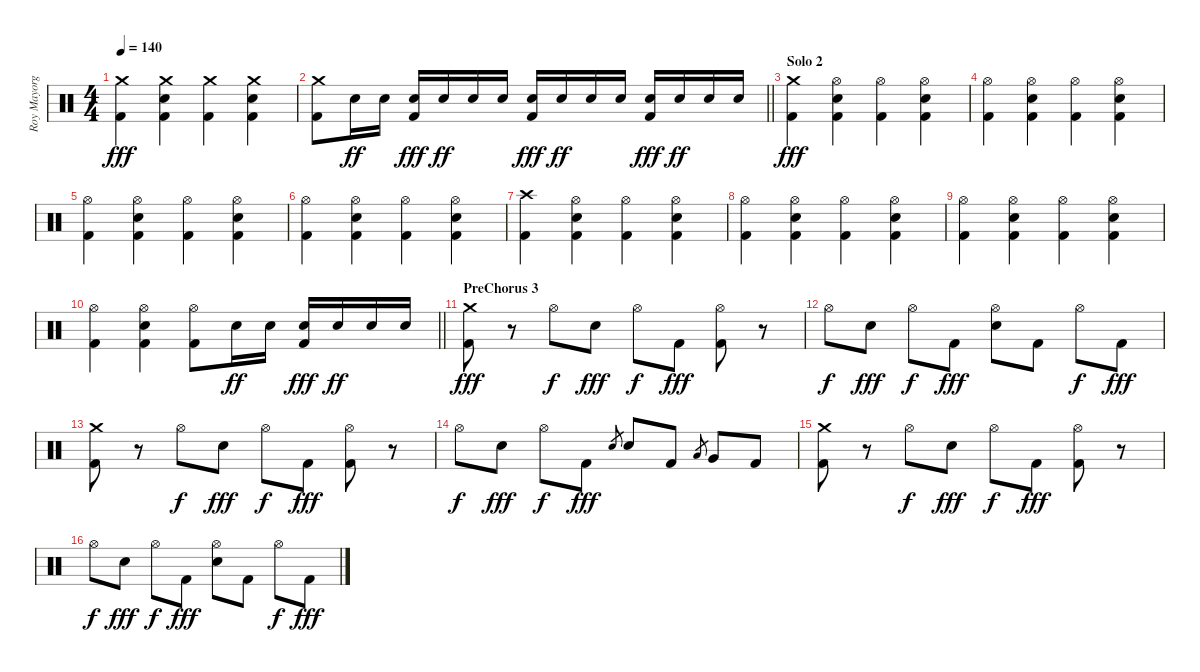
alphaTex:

\track ("Roy Mayorga" "Roy Mayorg") {instrument percussion}
\staff {score}
\articulation defaults
\ts (4 4)
\tempo 140
\clef neutral
\ks c
("Crash medium (hit)" "Kick (hit) 2").4{dy fff} ("Crash medium (hit)" "Electric Snare (hit)" "Kick (hit) 2").4 ("Crash medium (hit)" "Kick (hit) 2").4 ("Crash medium (hit)" "Electric Snare (hit)" "Kick (hit) 2").4 |
\barLineRight lightlight
("Crash medium (hit)" "Kick (hit) 2").8 "Electric Snare (hit)".16{dy ff} "Electric Snare (hit)".16 ("Electric Snare (hit)" "Kick (hit) 2").16{dy fff} "Electric Snare (hit)".16{dy ff} "Electric Snare (hit)".16 "Electric Snare (hit)".16 ("Electric Snare (hit)" "Kick (hit) 2").16{dy fff} "Electric Snare (hit)".16{dy ff} "Electric Snare (hit)".16 "Electric Snare (hit)".16 ("Electric Snare (hit)" "Kick (hit) 2").16{dy fff} "Electric Snare (hit)".16{dy ff} "Electric Snare (hit)".16 "Electric Snare (hit)".16 |
\section ("" "Solo 2")
("Crash medium (hit)" "Kick (hit) 2").4{dy fff} ("Hi-Hat (open)" "Electric Snare (hit)" "Kick (hit) 2").4 ("Hi-Hat (open)" "Kick (hit) 2").4 ("Hi-Hat (open)" "Electric Snare (hit)" "Kick (hit) 2").4 |
("Hi-Hat (open)" "Kick (hit) 2").4 ("Hi-Hat (open)" "Electric Snare (hit)" "Kick (hit) 2").4 ("Hi-Hat (open)" "Kick (hit) 2").4 ("Hi-Hat (open)" "Electric Snare (hit)" "Kick (hit) 2").4 |
("Hi-Hat (open)" "Kick (hit) 2").4 ("Hi-Hat (open)" "Electric Snare (hit)" "Kick (hit) 2").4 ("Hi-Hat (open)" "Kick (hit) 2").4 ("Hi-Hat (open)" "Electric Snare (hit)" "Kick (hit) 2").4 |
("Hi-Hat (open)" "Kick (hit) 2").4 ("Hi-Hat (open)" "Electric Snare (hit)" "Kick (hit) 2").4 ("Hi-Hat (open)" "Kick (hit) 2").4 ("Hi-Hat (open)" "Electric Snare (hit)" "Kick (hit) 2").4 |
("Crash high (hit)" "Kick (hit) 2").4 ("Hi-Hat (open)" "Electric Snare (hit)" "Kick (hit) 2").4 ("Hi-Hat (open)" "Kick (hit) 2").4 ("Hi-Hat (open)" "Electric Snare (hit)" "Kick (hit) 2").4 |
("Hi-Hat (open)" "Kick (hit) 2").4 ("Hi-Hat (open)" "Electric Snare (hit)" "Kick (hit) 2").4 ("Hi-Hat (open)" "Kick (hit) 2").4 ("Hi-Hat (open)" "Electric Snare (hit)" "Kick (hit) 2").4 |
("Hi-Hat (open)" "Kick (hit) 2").4 ("Hi-Hat (open)" "Electric Snare (hit)" "Kick (hit) 2").4 ("Hi-Hat (open)" "Kick (hit) 2").4 ("Hi-Hat (open)" "Electric Snare (hit)" "Kick (hit) 2").4 |
\barLineRight lightlight
("Hi-Hat (open)" "Kick (hit) 2").4 ("Hi-Hat (open)" "Electric Snare (hit)" "Kick (hit) 2").4 ("Hi-Hat (open)" "Kick (hit) 2").8 "Electric Snare (hit)".16{dy ff} "Electric Snare (hit)".16 ("Electric Snare (hit)" "Kick (hit) 2").16{dy fff} "Electric Snare (hit)".16{dy ff} "Electric Snare (hit)".16 "Electric Snare (hit)".16 |
\section ("" "PreChorus 3")
("Crash medium (hit)" "Kick (hit) 2").8{dy fff} r.8 "Hi-Hat (open)".8{dy f} "Electric Snare (hit)".8{dy fff} "Hi-Hat (open)".8{dy f} "Kick (hit) 2".8{dy fff} ("Hi-Hat (open)" "Kick (hit) 2").8 r.8 |
"Hi-Hat (open)".8{dy f} "Electric Snare (hit)".8{dy fff} "Hi-Hat (open)".8{dy f} "Kick (hit) 2".8{dy fff} ("Hi-Hat (open)" "Electric Snare (hit)").8 "Kick (hit) 2".8 "Hi-Hat (open)".8{dy f} "Kick (hit) 2".8{dy fff} |
("Crash medium (hit)" "Kick (hit) 2").8 r.8 "Hi-Hat (open)".8{dy f} "Electric Snare (hit)".8{dy fff} "Hi-Hat (open)".8{dy f} "Kick (hit) 2".8{dy fff} ("Hi-Hat (open)" "Kick (hit) 2").8 r.8 |
"Hi-Hat (open)".8{dy f} "Electric Snare (hit)".8{dy fff} "Hi-Hat (open)".8{dy f} "Kick (hit) 2".8{dy fff} "Electric Snare (hit)".8{gr} "Electric Snare (hit)".8 "Kick (hit) 2".8 "Low Floor Tom (hit)".8{gr} "Very Low Tom (hit)".8 "Kick (hit) 2".8 |
("Crash medium (hit)" "Kick (hit) 2").8 r.8 "Hi-Hat (open)".8{dy f} "Electric Snare (hit)".8{dy fff} "Hi-Hat (open)".8{dy f} "Kick (hit) 2".8{dy fff} ("Hi-Hat (open)" "Kick (hit) 2").8 r.8 |
"Hi-Hat (open)".8{dy f} "Electric Snare (hit)".8{dy fff} "Hi-Hat (open)".8{dy f} "Kick (hit) 2".8{dy fff} ("Hi-Hat (open)" "Electric Snare (hit)").8 "Kick (hit) 2".8 "Hi-Hat (open)".8{dy f} "Kick (hit) 2".8{dy fff}
